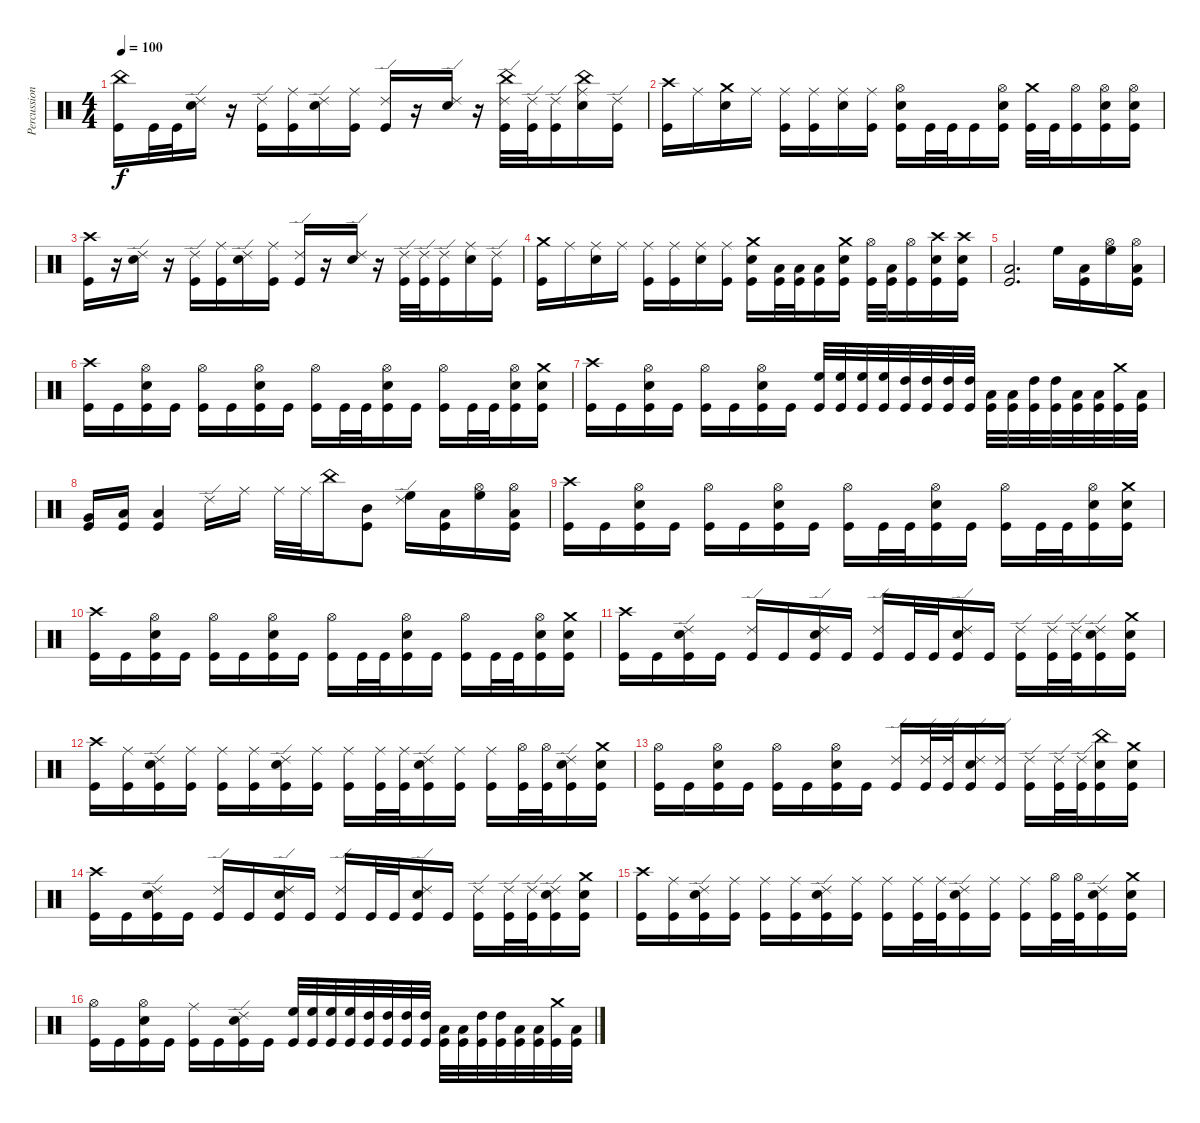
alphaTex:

\track ("Percussion" "Percussion") {instrument percussion}
\staff {score}
\articulation defaults
\ts (4 4)
\tempo 100
\clef neutral
\ks c
("China (hit)" "Kick (hit)").16{dy f} "Kick (hit)".32 "Kick (hit)".32 ("Ride (edge) 2" "Snare (hit) 2").16 r.16 ("Ride (edge) 2" "Kick (hit)").16 ("Ride (middle)" "Kick (hit)").16 ("Ride (edge) 2" "Snare (hit) 2").16 ("Ride (middle)" "Kick (hit)").16 ("Ride (edge) 2" "Kick (hit)").16 r.16 ("Ride (edge) 2" "Snare (hit) 2").16 r.16 ("China (hit)" "Ride (edge) 2" "Kick (hit)").32 ("Ride (edge) 2" "Kick (hit)").32 ("Ride (edge) 2" "Kick (hit)").16 ("China (hit)" "Ride (middle)" "Snare (hit) 2").16 ("Ride (edge) 2" "Kick (hit)").16 |
("Crash high (hit)" "Kick (hit)").16 "Ride (middle)".16 ("Crash medium (hit)" "Snare (hit) 2").16 "Ride (middle)".16 ("Ride (middle)" "Kick (hit)").16 ("Ride (middle)" "Kick (hit)").16 ("Ride (middle)" "Snare (hit) 2").16 ("Ride (middle)" "Kick (hit)").16 ("Hi-Hat (open)" "Snare (hit) 2" "Kick (hit)").16 "Kick (hit)".32 "Kick (hit)".32 "Kick (hit)".16 ("Hi-Hat (open)" "Snare (hit) 2" "Kick (hit)").16 ("Crash medium (hit)" "Kick (hit)").32 "Kick (hit)".32 ("Hi-Hat (open)" "Kick (hit)").16 ("Hi-Hat (open)" "Snare (hit) 2" "Kick (hit)").16 ("Hi-Hat (open)" "Snare (hit) 2" "Kick (hit)").16 |
("Crash high (hit)" "Kick (hit)").16 r.16 ("Ride (edge) 2" "Snare (hit) 2").16 r.16 ("Ride (edge) 2" "Kick (hit)").16 ("Ride (middle)" "Kick (hit)").16 ("Ride (edge) 2" "Snare (hit) 2").16 ("Ride (middle)" "Kick (hit)").16 ("Ride (edge) 2" "Kick (hit)").16 r.16 ("Ride (edge) 2" "Snare (hit) 2").16 r.16 ("Ride (edge) 2" "Kick (hit)").32 ("Ride (edge) 2" "Kick (hit)").32 ("Ride (edge) 2" "Kick (hit)").16 ("Ride (middle)" "Snare (hit) 2").16 ("Ride (edge) 2" "Kick (hit)").16 |
("Crash medium (hit)" "Kick (hit)").16 "Ride (middle)".16 ("Ride (middle)" "Snare (hit) 2").16 "Ride (middle)".16 ("Ride (middle)" "Kick (hit)").16 ("Ride (middle)" "Kick (hit)").16 ("Ride (middle)" "Snare (hit) 2").16 ("Ride (middle)" "Kick (hit)").16 ("Crash medium (hit)" "Snare (hit) 2" "Kick (hit)").16 ("Low Floor Tom (hit)" "Kick (hit)").32 ("Low Floor Tom (hit)" "Kick (hit)").32 ("Low Floor Tom (hit)" "Kick (hit)").16 ("Crash medium (hit)" "Snare (hit) 2" "Kick (hit)").16 ("Hi-Hat (open)" "Kick (hit)").32 ("Low Floor Tom (hit)" "Kick (hit)").32 ("Hi-Hat (open)" "Kick (hit)").16 ("Crash high (hit)" "Snare (hit) 2" "Kick (hit)").16 ("Crash high (hit)" "Snare (hit) 2" "Kick (hit)").16 |
("Low Floor Tom (hit)" "Kick (hit)").2{d} "High Floor Tom (hit)".16 ("Low Floor Tom (hit)" "Kick (hit)").16 ("High Floor Tom (hit)" "Hi-Hat (open)").16 ("Low Floor Tom (hit)" "Hi-Hat (open)" "Kick (hit)").16 |
("Crash high (hit)" "Kick (hit)").16 "Kick (hit)".16 ("Hi-Hat (open)" "Snare (hit) 2" "Kick (hit)").16 "Kick (hit)".16 ("Hi-Hat (open)" "Kick (hit)").16 "Kick (hit)".16 ("Hi-Hat (open)" "Snare (hit) 2" "Kick (hit)").16 "Kick (hit)".16 ("Hi-Hat (open)" "Kick (hit)").16 "Kick (hit)".32 "Kick (hit)".32 ("Hi-Hat (open)" "Snare (hit) 2" "Kick (hit)").16 "Kick (hit)".16 ("Hi-Hat (open)" "Kick (hit)").16 "Kick (hit)".32 "Kick (hit)".32 ("Hi-Hat (open)" "Snare (hit) 2" "Kick (hit)").16 ("Crash medium (hit)" "Snare (hit) 2" "Kick (hit)").16 |
("Crash high (hit)" "Kick (hit)").16 "Kick (hit)".16 ("Hi-Hat (open)" "Snare (hit) 2" "Kick (hit)").16 "Kick (hit)".16 ("Hi-Hat (open)" "Kick (hit)").16 "Kick (hit)".16 ("Hi-Hat (open)" "Snare (hit) 2" "Kick (hit)").16 "Kick (hit)".16 ("High Floor Tom (hit)" "Kick (hit)").32 ("High Floor Tom (hit)" "Kick (hit)").32 ("High Floor Tom (hit)" "Kick (hit)").32 ("High Floor Tom (hit)" "Kick (hit)").32 ("High Tom (hit)" "Kick (hit)").32 ("High Tom (hit)" "Kick (hit)").32 ("High Tom (hit)" "Kick (hit)").32 ("High Tom (hit)" "Kick (hit)").32 ("Low Tom (hit)" "Kick (hit)").32 ("Low Tom (hit)" "Kick (hit)").32 ("High Tom (hit)" "Kick (hit)").32 ("High Tom (hit)" "Kick (hit)").32 ("Low Tom (hit)" "Kick (hit)").32 ("Low Tom (hit)" "Kick (hit)").32 ("Crash medium (hit)" "Kick (hit)").32 ("Low Floor Tom (hit)" "Kick (hit)").32 |
("Very Low Tom (hit)" "Kick (hit)").16 ("Low Floor Tom (hit)" "Kick (hit)").16 ("Low Floor Tom (hit)" "Kick (hit)").4 "Ride (edge) 2".16 "Ride (middle)".16 "Ride (middle)".32 "Ride (middle)".32 "China (hit)".16 ("Mid Tom (hit)" "Kick (hit)").8 ("Ride (edge) 2" "High Floor Tom (hit)").16 ("Low Floor Tom (hit)" "Kick (hit)").16 ("High Floor Tom (hit)" "Hi-Hat (open)").16 ("Low Floor Tom (hit)" "Hi-Hat (open)" "Kick (hit)").16 |
("Crash high (hit)" "Kick (hit)").16 "Kick (hit)".16 ("Hi-Hat (open)" "Snare (hit) 2" "Kick (hit)").16 "Kick (hit)".16 ("Hi-Hat (open)" "Kick (hit)").16 "Kick (hit)".16 ("Hi-Hat (open)" "Snare (hit) 2" "Kick (hit)").16 "Kick (hit)".16 ("Hi-Hat (open)" "Kick (hit)").16 "Kick (hit)".32 "Kick (hit)".32 ("Hi-Hat (open)" "Snare (hit) 2" "Kick (hit)").16 "Kick (hit)".16 ("Hi-Hat (open)" "Kick (hit)").16 "Kick (hit)".32 "Kick (hit)".32 ("Hi-Hat (open)" "Snare (hit) 2" "Kick (hit)").16 ("Crash medium (hit)" "Snare (hit) 2" "Kick (hit)").16 |
("Crash high (hit)" "Kick (hit)").16 "Kick (hit)".16 ("Hi-Hat (open)" "Snare (hit) 2" "Kick (hit)").16 "Kick (hit)".16 ("Hi-Hat (open)" "Kick (hit)").16 "Kick (hit)".16 ("Hi-Hat (open)" "Snare (hit) 2" "Kick (hit)").16 "Kick (hit)".16 ("Hi-Hat (open)" "Kick (hit)").16 "Kick (hit)".32 "Kick (hit)".32 ("Hi-Hat (open)" "Snare (hit) 2" "Kick (hit)").16 "Kick (hit)".16 ("Hi-Hat (open)" "Kick (hit)").16 "Kick (hit)".32 "Kick (hit)".32 ("Hi-Hat (open)" "Snare (hit) 2" "Kick (hit)").16 ("Crash medium (hit)" "Snare (hit) 2" "Kick (hit)").16 |
("Crash high (hit)" "Kick (hit)").16 "Kick (hit)".16 ("Ride (edge) 2" "Snare (hit) 2" "Kick (hit)").16 "Kick (hit)".16 ("Ride (edge) 2" "Kick (hit)").16 "Kick (hit)".16 ("Ride (edge) 2" "Snare (hit) 2" "Kick (hit)").16 "Kick (hit)".16 ("Ride (edge) 2" "Kick (hit)").16 "Kick (hit)".32 "Kick (hit)".32 ("Ride (edge) 2" "Snare (hit) 2" "Kick (hit)").16 "Kick (hit)".16 ("Ride (edge) 2" "Kick (hit)").16 ("Ride (edge) 2" "Kick (hit)").32 ("Ride (edge) 2" "Kick (hit)").32 ("Ride (edge) 2" "Snare (hit) 2" "Kick (hit)").16 ("Crash medium (hit)" "Snare (hit) 2" "Kick (hit)").16 |
("Crash high (hit)" "Kick (hit)").16 ("Ride (middle)" "Kick (hit)").16 ("Ride (edge) 2" "Snare (hit) 2" "Kick (hit)").16 ("Ride (middle)" "Kick (hit)").16 ("Ride (middle)" "Kick (hit)").16 ("Ride (middle)" "Kick (hit)").16 ("Ride (edge) 2" "Snare (hit) 2" "Kick (hit)").16 ("Ride (middle)" "Kick (hit)").16 ("Ride (middle)" "Kick (hit)").16 ("Ride (middle)" "Kick (hit)").32 ("Ride (middle)" "Kick (hit)").32 ("Ride (edge) 2" "Snare (hit) 2" "Kick (hit)").16 ("Ride (middle)" "Kick (hit)").16 ("Ride (middle)" "Kick (hit)").16 ("Hi-Hat (open)" "Kick (hit)").32 ("Hi-Hat (open)" "Kick (hit)").32 ("Ride (edge) 2" "Snare (hit) 2" "Kick (hit)").16 ("Crash medium (hit)" "Snare (hit) 2" "Kick (hit)").16 |
("Hi-Hat (open)" "Kick (hit)").16 "Kick (hit)".16 ("Hi-Hat (open)" "Snare (hit) 2" "Kick (hit)").16 "Kick (hit)".16 ("Hi-Hat (open)" "Kick (hit)").16 "Kick (hit)".16 ("Hi-Hat (open)" "Snare (hit) 2" "Kick (hit)").16 "Kick (hit)".16 ("Ride (edge) 2" "Kick (hit)").16 ("Ride (edge) 2" "Kick (hit)").32 ("Ride (edge) 2" "Kick (hit)").32 ("Ride (edge) 2" "Snare (hit) 2" "Kick (hit)").16 ("Ride (edge) 2" "Kick (hit)").16 ("Ride (edge) 2" "Kick (hit)").16 ("Ride (edge) 2" "Kick (hit)").32 ("Ride (edge) 2" "Kick (hit)").32 ("China (hit)" "Snare (hit) 2" "Kick (hit)").16 ("Crash medium (hit)" "Snare (hit) 2" "Kick (hit)").16 |
("Crash high (hit)" "Kick (hit)").16 "Kick (hit)".16 ("Ride (edge) 2" "Snare (hit) 2" "Kick (hit)").16 "Kick (hit)".16 ("Ride (edge) 2" "Kick (hit)").16 "Kick (hit)".16 ("Ride (edge) 2" "Snare (hit) 2" "Kick (hit)").16 "Kick (hit)".16 ("Ride (edge) 2" "Kick (hit)").16 "Kick (hit)".32 "Kick (hit)".32 ("Ride (edge) 2" "Snare (hit) 2" "Kick (hit)").16 "Kick (hit)".16 ("Ride (edge) 2" "Kick (hit)").16 ("Ride (edge) 2" "Kick (hit)").32 ("Ride (edge) 2" "Kick (hit)").32 ("Ride (edge) 2" "Snare (hit) 2" "Kick (hit)").16 ("Crash medium (hit)" "Snare (hit) 2" "Kick (hit)").16 |
("Crash high (hit)" "Kick (hit)").16 ("Ride (middle)" "Kick (hit)").16 ("Ride (edge) 2" "Snare (hit) 2" "Kick (hit)").16 ("Ride (middle)" "Kick (hit)").16 ("Ride (middle)" "Kick (hit)").16 ("Ride (middle)" "Kick (hit)").16 ("Ride (edge) 2" "Snare (hit) 2" "Kick (hit)").16 ("Ride (middle)" "Kick (hit)").16 ("Ride (middle)" "Kick (hit)").16 ("Ride (middle)" "Kick (hit)").32 ("Ride (middle)" "Kick (hit)").32 ("Ride (edge) 2" "Snare (hit) 2" "Kick (hit)").16 ("Ride (middle)" "Kick (hit)").16 ("Ride (middle)" "Kick (hit)").16 ("Hi-Hat (open)" "Kick (hit)").32 ("Hi-Hat (open)" "Kick (hit)").32 ("Ride (edge) 2" "Snare (hit) 2" "Kick (hit)").16 ("Crash medium (hit)" "Snare (hit) 2" "Kick (hit)").16 |
("Hi-Hat (open)" "Kick (hit)").16 "Kick (hit)".16 ("Hi-Hat (open)" "Snare (hit) 2" "Kick (hit)").16 "Kick (hit)".16 ("Ride (middle)" "Kick (hit)").16 "Kick (hit)".16 ("Ride (edge) 2" "Snare (hit) 2" "Kick (hit)").16 "Kick (hit)".16 ("High Floor Tom (hit)" "Kick (hit)").32 ("High Floor Tom (hit)" "Kick (hit)").32 ("High Floor Tom (hit)" "Kick (hit)").32 ("High Floor Tom (hit)" "Kick (hit)").32 ("High Tom (hit)" "Kick (hit)").32 ("High Tom (hit)" "Kick (hit)").32 ("High Tom (hit)" "Kick (hit)").32 ("High Tom (hit)" "Kick (hit)").32 ("Low Tom (hit)" "Kick (hit)").32 ("Low Tom (hit)" "Kick (hit)").32 ("High Tom (hit)" "Kick (hit)").32 ("High Tom (hit)" "Kick (hit)").32 ("Low Tom (hit)" "Kick (hit)").32 ("Low Tom (hit)" "Kick (hit)").32 ("Crash medium (hit)" "Kick (hit)").32 ("Low Floor Tom (hit)" "Kick (hit)").32
